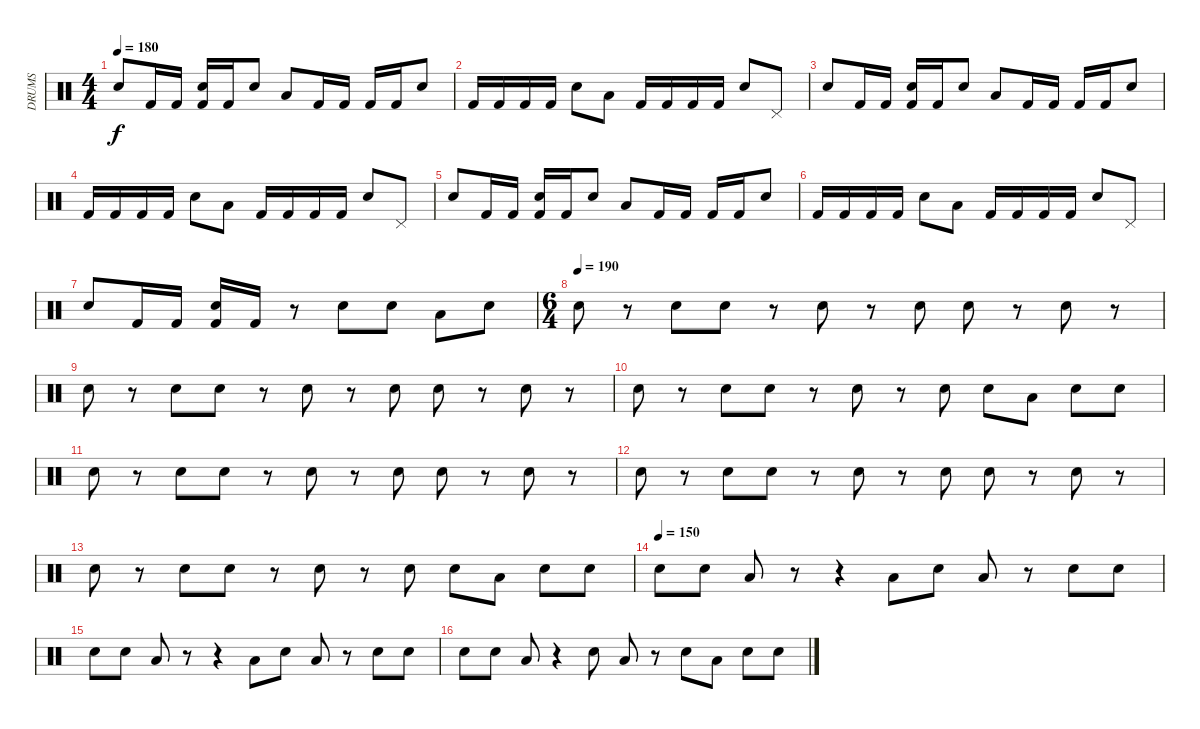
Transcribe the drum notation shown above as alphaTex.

\track ("DRUMS" "DRUMS") {instrument percussion}
\staff {score}
\articulation defaults
\ts (4 4)
\tempo 180
\clef neutral
\ks c "Electric Snare (hit)".8{dy f} "Kick (hit) 2".16 "Kick (hit) 2".16
("Electric Snare (hit)" "Kick (hit) 2").16 "Kick (hit) 2".16 "Electric Snare (hit)".8 "Low Tom (hit)".8 "Kick (hit) 2".16 "Kick (hit) 2".16 "Kick (hit) 2".16 "Kick (hit) 2".16 "Electric Snare (hit)".8 |
"Kick (hit) 2".16 "Kick (hit) 2".16 "Kick (hit) 2".16 "Kick (hit) 2".16 "Electric Snare (hit)".8 "Low Tom (hit)".8 "Kick (hit) 2".16 "Kick (hit) 2".16 "Kick (hit) 2".16 "Kick (hit) 2".16 "Electric Snare (hit)".8 "Pedal Hi-Hat (hit)".8 |
"Electric Snare (hit)".8 "Kick (hit) 2".16 "Kick (hit) 2".16 ("Electric Snare (hit)" "Kick (hit) 2").16 "Kick (hit) 2".16 "Electric Snare (hit)".8 "Low Tom (hit)".8 "Kick (hit) 2".16 "Kick (hit) 2".16 "Kick (hit) 2".16 "Kick (hit) 2".16 "Electric Snare (hit)".8 |
"Kick (hit) 2".16 "Kick (hit) 2".16 "Kick (hit) 2".16 "Kick (hit) 2".16 "Electric Snare (hit)".8 "Low Tom (hit)".8 "Kick (hit) 2".16 "Kick (hit) 2".16 "Kick (hit) 2".16 "Kick (hit) 2".16 "Electric Snare (hit)".8 "Pedal Hi-Hat (hit)".8 |
"Electric Snare (hit)".8 "Kick (hit) 2".16 "Kick (hit) 2".16 ("Electric Snare (hit)" "Kick (hit) 2").16 "Kick (hit) 2".16 "Electric Snare (hit)".8 "Low Tom (hit)".8 "Kick (hit) 2".16 "Kick (hit) 2".16 "Kick (hit) 2".16 "Kick (hit) 2".16 "Electric Snare (hit)".8 |
"Kick (hit) 2".16 "Kick (hit) 2".16 "Kick (hit) 2".16 "Kick (hit) 2".16 "Electric Snare (hit)".8 "Low Tom (hit)".8 "Kick (hit) 2".16 "Kick (hit) 2".16 "Kick (hit) 2".16 "Kick (hit) 2".16 "Electric Snare (hit)".8 "Pedal Hi-Hat (hit)".8 |
"Electric Snare (hit)".8 "Kick (hit) 2".16 "Kick (hit) 2".16 ("Electric Snare (hit)" "Kick (hit) 2").16 "Kick (hit) 2".16 r.8 "Electric Snare (hit)".8 "Electric Snare (hit)".8 "Low Tom (hit)".8 "Electric Snare (hit)".8 |
\ts (6 4)
\tempo (190)
"Electric Snare (hit)".8 r.8 "Electric Snare (hit)".8 "Electric Snare (hit)".8 r.8 "Electric Snare (hit)".8 r.8 "Electric Snare (hit)".8 "Electric Snare (hit)".8 r.8 "Electric Snare (hit)".8 r.8 |
"Electric Snare (hit)".8 r.8 "Electric Snare (hit)".8 "Electric Snare (hit)".8 r.8 "Electric Snare (hit)".8 r.8 "Electric Snare (hit)".8 "Electric Snare (hit)".8 r.8 "Electric Snare (hit)".8 r.8 |
"Electric Snare (hit)".8 r.8 "Electric Snare (hit)".8 "Electric Snare (hit)".8 r.8 "Electric Snare (hit)".8 r.8 "Electric Snare (hit)".8 "Electric Snare (hit)".8 "Low Tom (hit)".8 "Electric Snare (hit)".8 "Electric Snare (hit)".8 |
"Electric Snare (hit)".8 r.8 "Electric Snare (hit)".8 "Electric Snare (hit)".8 r.8 "Electric Snare (hit)".8 r.8 "Electric Snare (hit)".8 "Electric Snare (hit)".8 r.8 "Electric Snare (hit)".8 r.8 |
"Electric Snare (hit)".8 r.8 "Electric Snare (hit)".8 "Electric Snare (hit)".8 r.8 "Electric Snare (hit)".8 r.8 "Electric Snare (hit)".8 "Electric Snare (hit)".8 r.8 "Electric Snare (hit)".8 r.8 |
"Electric Snare (hit)".8 r.8 "Electric Snare (hit)".8 "Electric Snare (hit)".8 r.8 "Electric Snare (hit)".8 r.8 "Electric Snare (hit)".8 "Electric Snare (hit)".8 "Low Tom (hit)".8 "Electric Snare (hit)".8 "Electric Snare (hit)".8 |
\tempo (150)
"Electric Snare (hit)".8 "Electric Snare (hit)".8 "Low Tom (hit)".8 r.8 r.4 "Low Tom (hit)".8 "Electric Snare (hit)".8 "Low Tom (hit)".8 r.8 "Electric Snare (hit)".8 "Electric Snare (hit)".8 |
"Electric Snare (hit)".8 "Electric Snare (hit)".8 "Low Tom (hit)".8 r.8 r.4 "Low Tom (hit)".8 "Electric Snare (hit)".8 "Low Tom (hit)".8 r.8 "Electric Snare (hit)".8 "Electric Snare (hit)".8 |
"Electric Snare (hit)".8 "Electric Snare (hit)".8 "Low Tom (hit)".8 r.4 "Electric Snare (hit)".8 "Low Tom (hit)".8 r.8 "Electric Snare (hit)".8 "Low Tom (hit)".8 "Electric Snare (hit)".8 "Electric Snare (hit)".8
